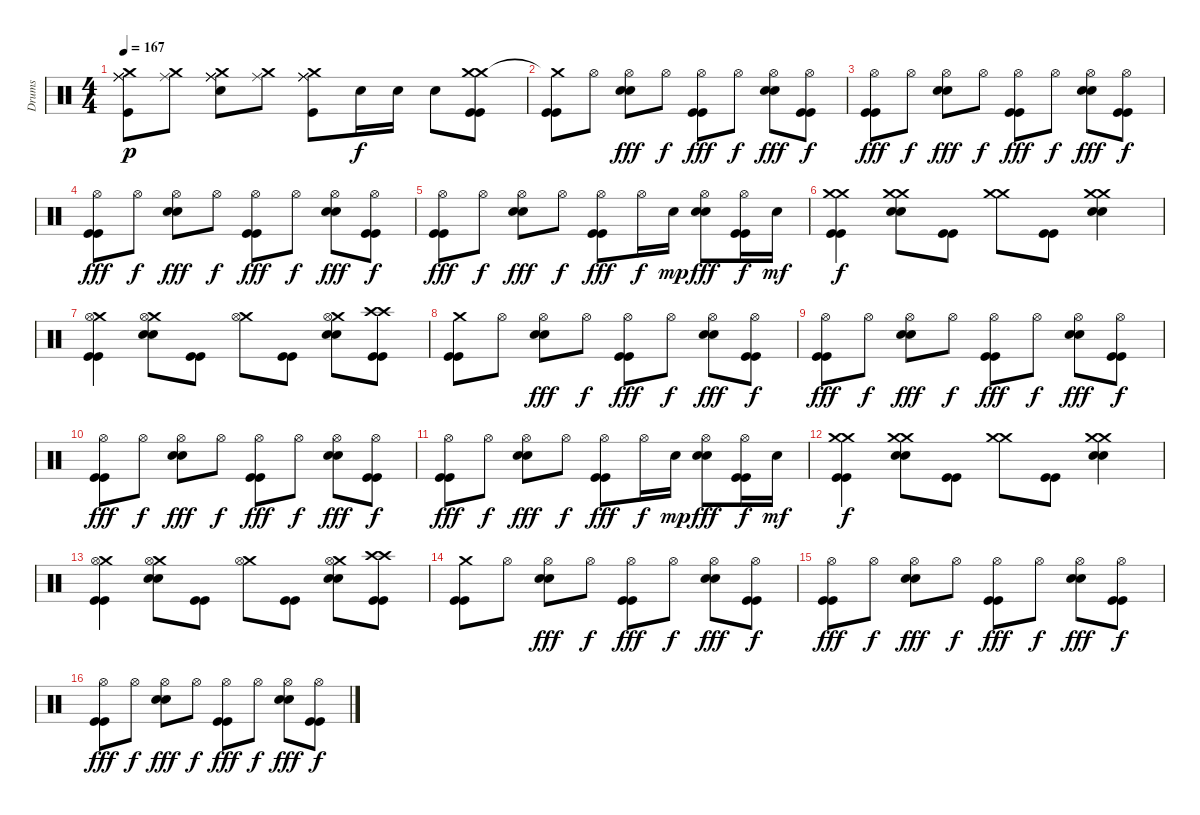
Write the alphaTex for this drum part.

\track ("Drums" "Drums") {instrument percussion}
\staff {score}
\articulation defaults
\ts (4 4)
\tempo 167
\clef neutral
\ks c
("Ride (middle)" "Crash medium (hit)" "Ride (middle)" "Ride (middle)" "Kick (hit)").8{dy p} ("Ride (middle)" "Crash medium (hit)").8 ("Ride (middle)" "Crash medium (hit)" "Snare (hit) 2" "Ride (middle)" "Ride (middle)").8 ("Ride (middle)" "Crash medium (hit)").8 ("Ride (middle)" "Crash medium (hit)" "Ride (middle)" "Ride (middle)" "Kick (hit)").8 "Snare (hit) 2".16{dy f} "Snare (hit) 2".16 "Snare (hit) 2".8 ("Crash medium (hit)" "Crash medium (hit)" "Kick (hit)" "Kick (hit)").8 |
("Crash medium (hit)"{t} "Kick (hit)" "Kick (hit)").8 "Hi-Hat (open)".8 ("Hi-Hat (open)" "Snare (hit) 2" "Snare (hit) 2").8{dy fff} "Hi-Hat (open)".8{dy f} ("Hi-Hat (open)" "Kick (hit)" "Kick (hit)").8{dy fff} "Hi-Hat (open)".8{dy f} ("Hi-Hat (open)" "Snare (hit) 2" "Snare (hit) 2").8{dy fff} ("Hi-Hat (open)" "Kick (hit)" "Kick (hit)").8{dy f} |
("Hi-Hat (open)" "Kick (hit)" "Kick (hit)").8{dy fff} "Hi-Hat (open)".8{dy f} ("Hi-Hat (open)" "Snare (hit) 2" "Snare (hit) 2").8{dy fff} "Hi-Hat (open)".8{dy f} ("Hi-Hat (open)" "Kick (hit)" "Kick (hit)").8{dy fff} "Hi-Hat (open)".8{dy f} ("Hi-Hat (open)" "Snare (hit) 2" "Snare (hit) 2").8{dy fff} ("Hi-Hat (open)" "Kick (hit)" "Kick (hit)").8{dy f} |
("Hi-Hat (open)" "Kick (hit)" "Kick (hit)").8{dy fff} "Hi-Hat (open)".8{dy f} ("Hi-Hat (open)" "Snare (hit) 2" "Snare (hit) 2").8{dy fff} "Hi-Hat (open)".8{dy f} ("Hi-Hat (open)" "Kick (hit)" "Kick (hit)").8{dy fff} "Hi-Hat (open)".8{dy f} ("Hi-Hat (open)" "Snare (hit) 2" "Snare (hit) 2").8{dy fff} ("Hi-Hat (open)" "Kick (hit)" "Kick (hit)").8{dy f} |
("Hi-Hat (open)" "Kick (hit)" "Kick (hit)").8{dy fff} "Hi-Hat (open)".8{dy f} ("Hi-Hat (open)" "Snare (hit) 2" "Snare (hit) 2").8{dy fff} "Hi-Hat (open)".8{dy f} ("Hi-Hat (open)" "Kick (hit)" "Kick (hit)").8{dy fff} "Hi-Hat (open)".16{dy f} "Snare (hit) 2".16{dy mp} ("Hi-Hat (open)" "Snare (hit) 2" "Snare (hit) 2").8{dy fff} ("Hi-Hat (open)" "Kick (hit)" "Kick (hit)").16{dy f} "Snare (hit) 2".16{dy mf} |
("Crash medium (hit)" "Crash medium (hit)" "Kick (hit)" "Kick (hit)").4{dy f} ("Crash medium (hit)" "Snare (hit) 2" "Snare (hit) 2" "Crash medium (hit)").8 ("Kick (hit)" "Kick (hit)").8 ("Crash medium (hit)" "Crash medium (hit)").8 ("Kick (hit)" "Kick (hit)").8 ("Crash medium (hit)" "Snare (hit) 2" "Snare (hit) 2" "Crash medium (hit)").4 |
("Crash medium (hit)" "Hi-Hat (open)" "Kick (hit)" "Kick (hit)").4 ("Crash medium (hit)" "Snare (hit) 2" "Snare (hit) 2" "Hi-Hat (open)").8 ("Kick (hit)" "Kick (hit)").8 ("Crash medium (hit)" "Hi-Hat (open)").8 ("Kick (hit)" "Kick (hit)").8 ("Crash medium (hit)" "Snare (hit) 2" "Snare (hit) 2" "Hi-Hat (open)").8 ("Crash high (hit)" "Crash high (hit)" "Kick (hit)" "Kick (hit)").8 |
("Crash medium (hit)" "Kick (hit)" "Kick (hit)").8 "Hi-Hat (open)".8 ("Hi-Hat (open)" "Snare (hit) 2" "Snare (hit) 2").8{dy fff} "Hi-Hat (open)".8{dy f} ("Hi-Hat (open)" "Kick (hit)" "Kick (hit)").8{dy fff} "Hi-Hat (open)".8{dy f} ("Hi-Hat (open)" "Snare (hit) 2" "Snare (hit) 2").8{dy fff} ("Hi-Hat (open)" "Kick (hit)" "Kick (hit)").8{dy f} |
("Hi-Hat (open)" "Kick (hit)" "Kick (hit)").8{dy fff} "Hi-Hat (open)".8{dy f} ("Hi-Hat (open)" "Snare (hit) 2" "Snare (hit) 2").8{dy fff} "Hi-Hat (open)".8{dy f} ("Hi-Hat (open)" "Kick (hit)" "Kick (hit)").8{dy fff} "Hi-Hat (open)".8{dy f} ("Hi-Hat (open)" "Snare (hit) 2" "Snare (hit) 2").8{dy fff} ("Hi-Hat (open)" "Kick (hit)" "Kick (hit)").8{dy f} |
("Hi-Hat (open)" "Kick (hit)" "Kick (hit)").8{dy fff} "Hi-Hat (open)".8{dy f} ("Hi-Hat (open)" "Snare (hit) 2" "Snare (hit) 2").8{dy fff} "Hi-Hat (open)".8{dy f} ("Hi-Hat (open)" "Kick (hit)" "Kick (hit)").8{dy fff} "Hi-Hat (open)".8{dy f} ("Hi-Hat (open)" "Snare (hit) 2" "Snare (hit) 2").8{dy fff} ("Hi-Hat (open)" "Kick (hit)" "Kick (hit)").8{dy f} |
("Hi-Hat (open)" "Kick (hit)" "Kick (hit)").8{dy fff} "Hi-Hat (open)".8{dy f} ("Hi-Hat (open)" "Snare (hit) 2" "Snare (hit) 2").8{dy fff} "Hi-Hat (open)".8{dy f} ("Hi-Hat (open)" "Kick (hit)" "Kick (hit)").8{dy fff} "Hi-Hat (open)".16{dy f} "Snare (hit) 2".16{dy mp} ("Hi-Hat (open)" "Snare (hit) 2" "Snare (hit) 2").8{dy fff} ("Hi-Hat (open)" "Kick (hit)" "Kick (hit)").16{dy f} "Snare (hit) 2".16{dy mf} |
("Crash medium (hit)" "Crash medium (hit)" "Kick (hit)" "Kick (hit)").4{dy f} ("Crash medium (hit)" "Snare (hit) 2" "Snare (hit) 2" "Crash medium (hit)").8 ("Kick (hit)" "Kick (hit)").8 ("Crash medium (hit)" "Crash medium (hit)").8 ("Kick (hit)" "Kick (hit)").8 ("Crash medium (hit)" "Snare (hit) 2" "Snare (hit) 2" "Crash medium (hit)").4 |
("Crash medium (hit)" "Hi-Hat (open)" "Kick (hit)" "Kick (hit)").4 ("Crash medium (hit)" "Snare (hit) 2" "Snare (hit) 2" "Hi-Hat (open)").8 ("Kick (hit)" "Kick (hit)").8 ("Crash medium (hit)" "Hi-Hat (open)").8 ("Kick (hit)" "Kick (hit)").8 ("Crash medium (hit)" "Snare (hit) 2" "Snare (hit) 2" "Hi-Hat (open)").8 ("Crash high (hit)" "Crash high (hit)" "Kick (hit)" "Kick (hit)").8 |
("Crash medium (hit)" "Kick (hit)" "Kick (hit)").8 "Hi-Hat (open)".8 ("Hi-Hat (open)" "Snare (hit) 2" "Snare (hit) 2").8{dy fff} "Hi-Hat (open)".8{dy f} ("Hi-Hat (open)" "Kick (hit)" "Kick (hit)").8{dy fff} "Hi-Hat (open)".8{dy f} ("Hi-Hat (open)" "Snare (hit) 2" "Snare (hit) 2").8{dy fff} ("Hi-Hat (open)" "Kick (hit)" "Kick (hit)").8{dy f} |
("Hi-Hat (open)" "Kick (hit)" "Kick (hit)").8{dy fff} "Hi-Hat (open)".8{dy f} ("Hi-Hat (open)" "Snare (hit) 2" "Snare (hit) 2").8{dy fff} "Hi-Hat (open)".8{dy f} ("Hi-Hat (open)" "Kick (hit)" "Kick (hit)").8{dy fff} "Hi-Hat (open)".8{dy f} ("Hi-Hat (open)" "Snare (hit) 2" "Snare (hit) 2").8{dy fff} ("Hi-Hat (open)" "Kick (hit)" "Kick (hit)").8{dy f} |
("Hi-Hat (open)" "Kick (hit)" "Kick (hit)").8{dy fff} "Hi-Hat (open)".8{dy f} ("Hi-Hat (open)" "Snare (hit) 2" "Snare (hit) 2").8{dy fff} "Hi-Hat (open)".8{dy f} ("Hi-Hat (open)" "Kick (hit)" "Kick (hit)").8{dy fff} "Hi-Hat (open)".8{dy f} ("Hi-Hat (open)" "Snare (hit) 2" "Snare (hit) 2").8{dy fff} ("Hi-Hat (open)" "Kick (hit)" "Kick (hit)").8{dy f}
